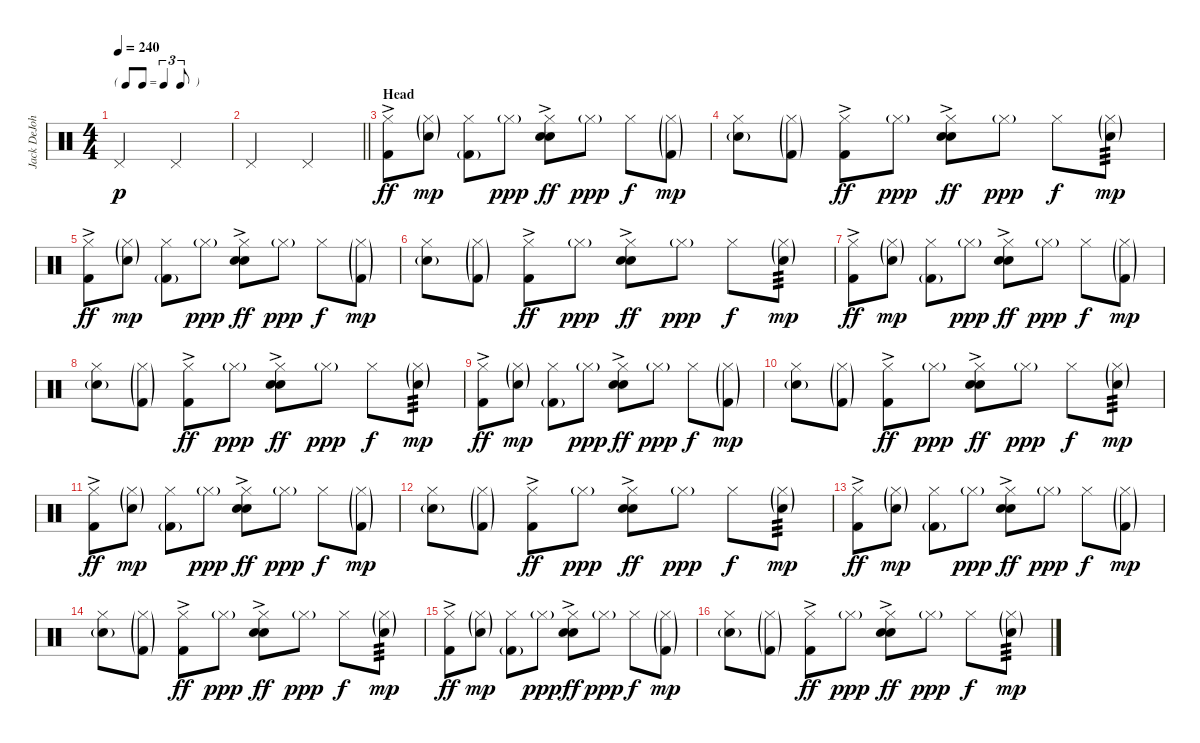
\track ("Jack DeJohnette" "Jack DeJoh") {instrument percussion}
\staff {score}
\articulation defaults
\ts (4 4)
\tf triplet8th
\tempo 240
\clef neutral
\ks c "Pedal Hi-Hat (hit)".2{dy p} "Pedal Hi-Hat (hit)".2
|
\barLineRight lightlight "Pedal Hi-Hat (hit)".2 "Pedal Hi-Hat (hit)".2
|
\section ("" "Head")
("Hi-Hat (closed)" "Kick (hit) 2"{ac}).8{dy ff} ("Hi-Hat (closed)"{g} "Snare (hit) 2"{g}).8{dy mp} ("Hi-Hat (closed)" "Kick (hit) 2"{g}).8 "Hi-Hat (closed)"{g}.8{dy ppp} ("Hi-Hat (closed)" "Electric Snare (hit)" "Snare (hit) 2"{ac}).8{dy ff} "Hi-Hat (closed)"{g}.8{dy ppp} "Hi-Hat (closed)".8{dy f} ("Hi-Hat (closed)"{g} "Kick (hit) 2"{g}).8{dy mp} |
("Hi-Hat (closed)" "Snare (hit) 2"{g}).8 ("Hi-Hat (closed)"{g} "Kick (hit) 2"{g}).8 ("Hi-Hat (closed)" "Kick (hit) 2"{ac}).8{dy ff} "Hi-Hat (closed)"{g}.8{dy ppp} ("Hi-Hat (closed)" "Electric Snare (hit)" "Snare (hit) 2"{ac}).8{dy ff} "Hi-Hat (closed)"{g}.8{dy ppp} "Hi-Hat (closed)".8{dy f} ("Hi-Hat (closed)"{g} "Snare (hit) 2"{g}).8{tp 3 dy mp} |
("Hi-Hat (closed)" "Kick (hit) 2"{ac}).8{dy ff} ("Hi-Hat (closed)"{g} "Snare (hit) 2"{g}).8{dy mp} ("Hi-Hat (closed)" "Kick (hit) 2"{g}).8 "Hi-Hat (closed)"{g}.8{dy ppp} ("Hi-Hat (closed)" "Electric Snare (hit)" "Snare (hit) 2"{ac}).8{dy ff} "Hi-Hat (closed)"{g}.8{dy ppp} "Hi-Hat (closed)".8{dy f} ("Hi-Hat (closed)"{g} "Kick (hit) 2"{g}).8{dy mp} |
("Hi-Hat (closed)" "Snare (hit) 2"{g}).8 ("Hi-Hat (closed)"{g} "Kick (hit) 2"{g}).8 ("Hi-Hat (closed)" "Kick (hit) 2"{ac}).8{dy ff} "Hi-Hat (closed)"{g}.8{dy ppp} ("Hi-Hat (closed)" "Electric Snare (hit)" "Snare (hit) 2"{ac}).8{dy ff} "Hi-Hat (closed)"{g}.8{dy ppp} "Hi-Hat (closed)".8{dy f} ("Hi-Hat (closed)"{g} "Snare (hit) 2"{g}).8{tp 3 dy mp} |
("Hi-Hat (closed)" "Kick (hit) 2"{ac}).8{dy ff} ("Hi-Hat (closed)"{g} "Snare (hit) 2"{g}).8{dy mp} ("Hi-Hat (closed)" "Kick (hit) 2"{g}).8 "Hi-Hat (closed)"{g}.8{dy ppp} ("Hi-Hat (closed)" "Electric Snare (hit)" "Snare (hit) 2"{ac}).8{dy ff} "Hi-Hat (closed)"{g}.8{dy ppp} "Hi-Hat (closed)".8{dy f} ("Hi-Hat (closed)"{g} "Kick (hit) 2"{g}).8{dy mp} |
("Hi-Hat (closed)" "Snare (hit) 2"{g}).8 ("Hi-Hat (closed)"{g} "Kick (hit) 2"{g}).8 ("Hi-Hat (closed)" "Kick (hit) 2"{ac}).8{dy ff} "Hi-Hat (closed)"{g}.8{dy ppp} ("Hi-Hat (closed)" "Electric Snare (hit)" "Snare (hit) 2"{ac}).8{dy ff} "Hi-Hat (closed)"{g}.8{dy ppp} "Hi-Hat (closed)".8{dy f} ("Hi-Hat (closed)"{g} "Snare (hit) 2"{g}).8{tp 3 dy mp} |
("Hi-Hat (closed)" "Kick (hit) 2"{ac}).8{dy ff} ("Hi-Hat (closed)"{g} "Snare (hit) 2"{g}).8{dy mp} ("Hi-Hat (closed)" "Kick (hit) 2"{g}).8 "Hi-Hat (closed)"{g}.8{dy ppp} ("Hi-Hat (closed)" "Electric Snare (hit)" "Snare (hit) 2"{ac}).8{dy ff} "Hi-Hat (closed)"{g}.8{dy ppp} "Hi-Hat (closed)".8{dy f} ("Hi-Hat (closed)"{g} "Kick (hit) 2"{g}).8{dy mp} |
("Hi-Hat (closed)" "Snare (hit) 2"{g}).8 ("Hi-Hat (closed)"{g} "Kick (hit) 2"{g}).8 ("Hi-Hat (closed)" "Kick (hit) 2"{ac}).8{dy ff} "Hi-Hat (closed)"{g}.8{dy ppp} ("Hi-Hat (closed)" "Electric Snare (hit)" "Snare (hit) 2"{ac}).8{dy ff} "Hi-Hat (closed)"{g}.8{dy ppp} "Hi-Hat (closed)".8{dy f} ("Hi-Hat (closed)"{g} "Snare (hit) 2"{g}).8{tp 3 dy mp} |
("Hi-Hat (closed)" "Kick (hit) 2"{ac}).8{dy ff} ("Hi-Hat (closed)"{g} "Snare (hit) 2"{g}).8{dy mp} ("Hi-Hat (closed)" "Kick (hit) 2"{g}).8 "Hi-Hat (closed)"{g}.8{dy ppp} ("Hi-Hat (closed)" "Electric Snare (hit)" "Snare (hit) 2"{ac}).8{dy ff} "Hi-Hat (closed)"{g}.8{dy ppp} "Hi-Hat (closed)".8{dy f} ("Hi-Hat (closed)"{g} "Kick (hit) 2"{g}).8{dy mp} |
("Hi-Hat (closed)" "Snare (hit) 2"{g}).8 ("Hi-Hat (closed)"{g} "Kick (hit) 2"{g}).8 ("Hi-Hat (closed)" "Kick (hit) 2"{ac}).8{dy ff} "Hi-Hat (closed)"{g}.8{dy ppp} ("Hi-Hat (closed)" "Electric Snare (hit)" "Snare (hit) 2"{ac}).8{dy ff} "Hi-Hat (closed)"{g}.8{dy ppp} "Hi-Hat (closed)".8{dy f} ("Hi-Hat (closed)"{g} "Snare (hit) 2"{g}).8{tp 3 dy mp} |
("Hi-Hat (closed)" "Kick (hit) 2"{ac}).8{dy ff} ("Hi-Hat (closed)"{g} "Snare (hit) 2"{g}).8{dy mp} ("Hi-Hat (closed)" "Kick (hit) 2"{g}).8 "Hi-Hat (closed)"{g}.8{dy ppp} ("Hi-Hat (closed)" "Electric Snare (hit)" "Snare (hit) 2"{ac}).8{dy ff} "Hi-Hat (closed)"{g}.8{dy ppp} "Hi-Hat (closed)".8{dy f} ("Hi-Hat (closed)"{g} "Kick (hit) 2"{g}).8{dy mp} |
("Hi-Hat (closed)" "Snare (hit) 2"{g}).8 ("Hi-Hat (closed)"{g} "Kick (hit) 2"{g}).8 ("Hi-Hat (closed)" "Kick (hit) 2"{ac}).8{dy ff} "Hi-Hat (closed)"{g}.8{dy ppp} ("Hi-Hat (closed)" "Electric Snare (hit)" "Snare (hit) 2"{ac}).8{dy ff} "Hi-Hat (closed)"{g}.8{dy ppp} "Hi-Hat (closed)".8{dy f} ("Hi-Hat (closed)"{g} "Snare (hit) 2"{g}).8{tp 3 dy mp} |
("Hi-Hat (closed)" "Kick (hit) 2"{ac}).8{dy ff} ("Hi-Hat (closed)"{g} "Snare (hit) 2"{g}).8{dy mp} ("Hi-Hat (closed)" "Kick (hit) 2"{g}).8 "Hi-Hat (closed)"{g}.8{dy ppp} ("Hi-Hat (closed)" "Electric Snare (hit)" "Snare (hit) 2"{ac}).8{dy ff} "Hi-Hat (closed)"{g}.8{dy ppp} "Hi-Hat (closed)".8{dy f} ("Hi-Hat (closed)"{g} "Kick (hit) 2"{g}).8{dy mp} |
("Hi-Hat (closed)" "Snare (hit) 2"{g}).8 ("Hi-Hat (closed)"{g} "Kick (hit) 2"{g}).8 ("Hi-Hat (closed)" "Kick (hit) 2"{ac}).8{dy ff} "Hi-Hat (closed)"{g}.8{dy ppp} ("Hi-Hat (closed)" "Electric Snare (hit)" "Snare (hit) 2"{ac}).8{dy ff} "Hi-Hat (closed)"{g}.8{dy ppp} "Hi-Hat (closed)".8{dy f} ("Hi-Hat (closed)"{g} "Snare (hit) 2"{g}).8{tp 3 dy mp}
